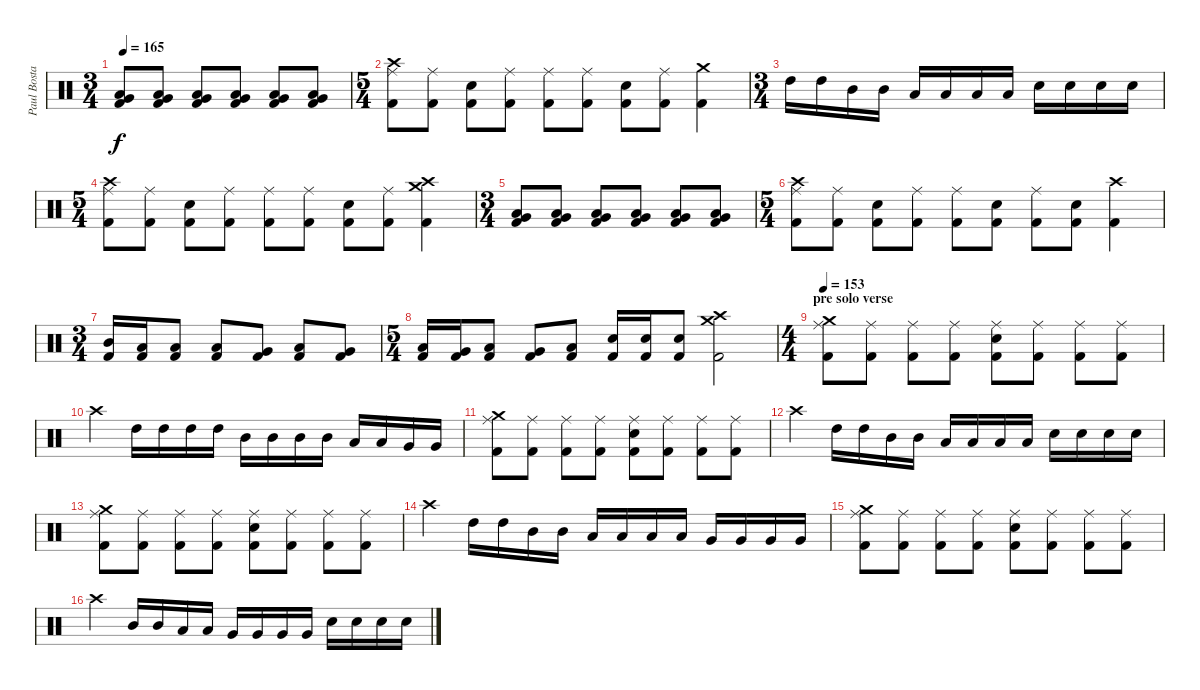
\track ("Paul Bostaph" "Paul Bosta") {instrument percussion}
\staff {score}
\articulation defaults
\ts (3 4)
\tempo 165
\clef neutral
\ks c
("Very Low Tom (hit)" "Low Tom (hit)" "Kick (hit) 2").8{dy f} ("Very Low Tom (hit)" "Low Tom (hit)" "Kick (hit) 2").8 ("Very Low Tom (hit)" "Low Tom (hit)" "Kick (hit) 2").8 ("Very Low Tom (hit)" "Low Tom (hit)" "Kick (hit) 2").8 ("Very Low Tom (hit)" "Low Tom (hit)" "Kick (hit) 2").8 ("Very Low Tom (hit)" "Low Tom (hit)" "Kick (hit) 2").8 |
\ts (5 4)
("Crash high (hit)" "Ride (middle)" "Kick (hit) 2").8 ("Ride (middle)" "Kick (hit) 2").8 ("Snare (hit) 2" "Kick (hit) 2").8 ("Ride (middle)" "Kick (hit) 2").8 ("Ride (middle)" "Kick (hit) 2").8 ("Ride (middle)" "Kick (hit) 2").8 ("Snare (hit) 2" "Kick (hit) 2").8 ("Ride (middle)" "Kick (hit) 2").8 ("Crash medium (hit)" "Kick (hit) 2").4 |
\ts (3 4)
"High Tom (hit)".16 "High Tom (hit)".16 "Mid Tom (hit)".16 "Mid Tom (hit)".16 "Low Tom (hit)".16 "Low Tom (hit)".16 "Low Tom (hit)".16 "Low Tom (hit)".16 "Snare (hit) 2".16 "Snare (hit) 2".16 "Snare (hit) 2".16 "Snare (hit) 2".16 |
\ts (5 4)
("Crash high (hit)" "Ride (middle)" "Kick (hit) 2").8 ("Ride (middle)" "Kick (hit) 2").8 ("Snare (hit) 2" "Kick (hit) 2").8 ("Ride (middle)" "Kick (hit) 2").8 ("Ride (middle)" "Kick (hit) 2").8 ("Ride (middle)" "Kick (hit) 2").8 ("Snare (hit) 2" "Kick (hit) 2").8 ("Ride (middle)" "Kick (hit) 2").8 ("Crash medium (hit)" "Crash high (hit)" "Kick (hit) 2").4 |
\ts (3 4)
("Very Low Tom (hit)" "Low Tom (hit)" "Kick (hit) 2").8 ("Very Low Tom (hit)" "Low Tom (hit)" "Kick (hit) 2").8 ("Very Low Tom (hit)" "Low Tom (hit)" "Kick (hit) 2").8 ("Very Low Tom (hit)" "Low Tom (hit)" "Kick (hit) 2").8 ("Very Low Tom (hit)" "Low Tom (hit)" "Kick (hit) 2").8 ("Very Low Tom (hit)" "Low Tom (hit)" "Kick (hit) 2").8 |
\ts (5 4)
("Crash high (hit)" "Ride (middle)" "Kick (hit) 2").8 ("Ride (middle)" "Kick (hit) 2").8 ("Snare (hit) 2" "Kick (hit) 2").8 ("Ride (middle)" "Kick (hit) 2").8 ("Ride (middle)" "Kick (hit) 2").8 ("Snare (hit) 2" "Kick (hit) 2").8 ("Ride (middle)" "Kick (hit) 2").8 ("Snare (hit) 2" "Kick (hit) 2").8 ("Kick (hit) 2" "Crash high (hit)").4 |
\ts (3 4)
("Mid Tom (hit)" "Kick (hit) 2").16 ("Low Tom (hit)" "Kick (hit) 2").16 ("Low Floor Tom (hit)" "Kick (hit) 2").8 ("Low Tom (hit)" "Kick (hit) 2").8 ("Very Low Tom (hit)" "Kick (hit) 2").8 ("Low Floor Tom (hit)" "Kick (hit) 2").8 ("Very Low Tom (hit)" "Kick (hit) 2").8 |
\ts (5 4)
("Low Tom (hit)" "Kick (hit) 2").16 ("Very Low Tom (hit)" "Kick (hit) 2").16 ("Low Floor Tom (hit)" "Kick (hit) 2").8 ("Very Low Tom (hit)" "Kick (hit) 2").8 ("Low Tom (hit)" "Kick (hit) 2").8 ("Snare (hit) 2" "Kick (hit) 2").16 ("Snare (hit) 2" "Kick (hit) 2").16 ("Snare (hit) 2" "Kick (hit) 2").8 ("Crash medium (hit)" "Crash high (hit)" "Kick (hit) 2").2 |
\ts (4 4)
\section ("" "pre solo verse")
\tempo 153
("Kick (hit) 2" "Crash medium (hit)" "Ride (middle)").8 ("Kick (hit) 2" "Ride (middle)").8 ("Kick (hit) 2" "Ride (middle)").8 ("Kick (hit) 2" "Ride (middle)").8 ("Kick (hit) 2" "Snare (hit) 2" "Ride (middle)").8 ("Kick (hit) 2" "Ride (middle)").8 ("Kick (hit) 2" "Ride (middle)").8 ("Kick (hit) 2" "Ride (middle)").8 |
"Crash high (hit)".4 "High Tom (hit)".16 "High Tom (hit)".16 "High Tom (hit)".16 "High Tom (hit)".16 "Mid Tom (hit)".16 "Mid Tom (hit)".16 "Mid Tom (hit)".16 "Mid Tom (hit)".16 "Low Tom (hit)".16 "Low Tom (hit)".16 "Very Low Tom (hit)".16 "Very Low Tom (hit)".16 |
("Kick (hit) 2" "Crash medium (hit)" "Ride (middle)").8 ("Kick (hit) 2" "Ride (middle)").8 ("Kick (hit) 2" "Ride (middle)").8 ("Kick (hit) 2" "Ride (middle)").8 ("Kick (hit) 2" "Snare (hit) 2" "Ride (middle)").8 ("Kick (hit) 2" "Ride (middle)").8 ("Kick (hit) 2" "Ride (middle)").8 ("Kick (hit) 2" "Ride (middle)").8 |
"Crash high (hit)".4 "High Tom (hit)".16 "High Tom (hit)".16 "Mid Tom (hit)".16 "Mid Tom (hit)".16 "Low Tom (hit)".16 "Low Tom (hit)".16 "Low Tom (hit)".16 "Low Tom (hit)".16 "Snare (hit) 2".16 "Snare (hit) 2".16 "Snare (hit) 2".16 "Snare (hit) 2".16 |
("Kick (hit) 2" "Crash medium (hit)" "Ride (middle)").8 ("Kick (hit) 2" "Ride (middle)").8 ("Kick (hit) 2" "Ride (middle)").8 ("Kick (hit) 2" "Ride (middle)").8 ("Kick (hit) 2" "Snare (hit) 2" "Ride (middle)").8 ("Kick (hit) 2" "Ride (middle)").8 ("Kick (hit) 2" "Ride (middle)").8 ("Kick (hit) 2" "Ride (middle)").8 |
"Crash high (hit)".4 "High Tom (hit)".16 "High Tom (hit)".16 "Mid Tom (hit)".16 "Mid Tom (hit)".16 "Low Tom (hit)".16 "Low Tom (hit)".16 "Low Tom (hit)".16 "Low Tom (hit)".16 "Very Low Tom (hit)".16 "Very Low Tom (hit)".16 "Very Low Tom (hit)".16 "Very Low Tom (hit)".16 |
("Kick (hit) 2" "Crash medium (hit)" "Ride (middle)").8 ("Kick (hit) 2" "Ride (middle)").8 ("Kick (hit) 2" "Ride (middle)").8 ("Kick (hit) 2" "Ride (middle)").8 ("Kick (hit) 2" "Snare (hit) 2" "Ride (middle)").8 ("Kick (hit) 2" "Ride (middle)").8 ("Kick (hit) 2" "Ride (middle)").8 ("Kick (hit) 2" "Ride (middle)").8 |
"Crash high (hit)".4 "Mid Tom (hit)".16 "Mid Tom (hit)".16 "Low Tom (hit)".16 "Low Tom (hit)".16 "Very Low Tom (hit)".16 "Very Low Tom (hit)".16 "Very Low Tom (hit)".16 "Very Low Tom (hit)".16 "Snare (hit) 2".16 "Snare (hit) 2".16 "Snare (hit) 2".16 "Snare (hit) 2".16
